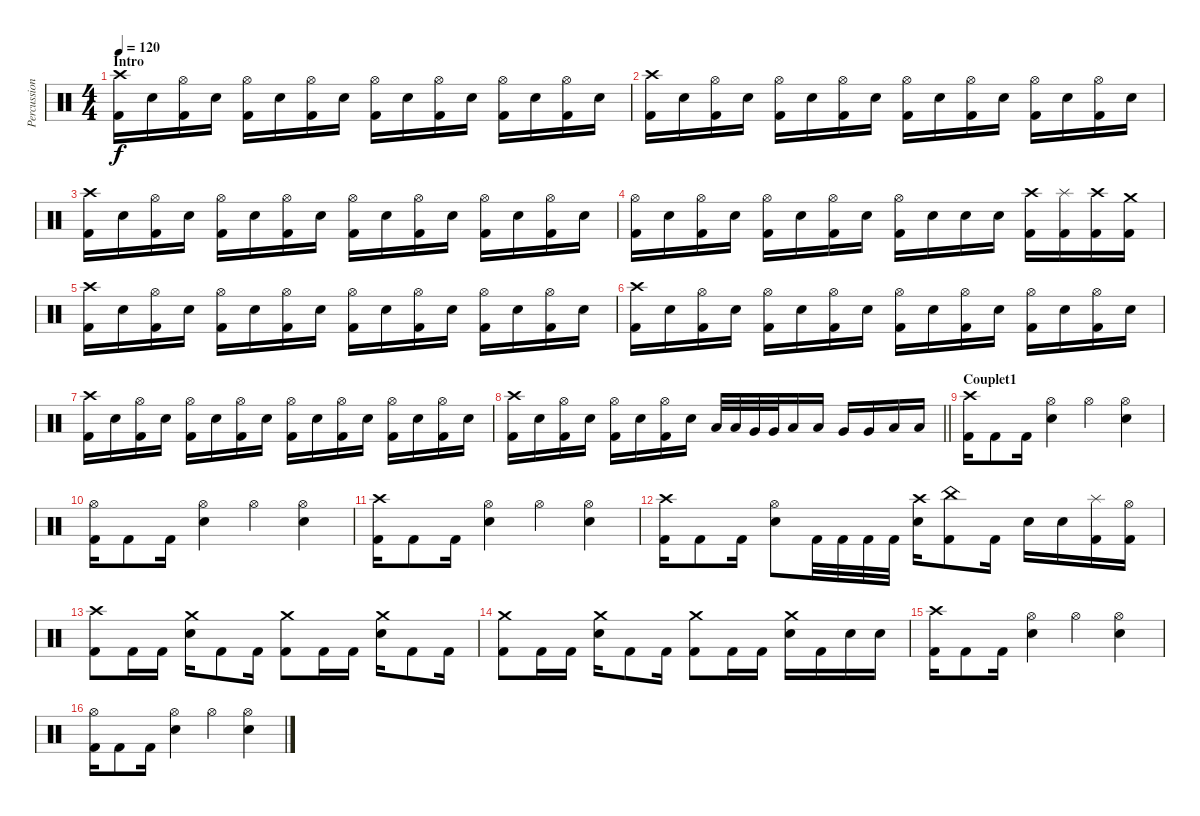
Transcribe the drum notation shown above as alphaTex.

\track ("Percussion" "Percussion") {instrument percussion}
\staff {score}
\articulation defaults
\ts (4 4)
\section ("" "Intro")
\tempo 120
\clef neutral
\ks c
("Crash high (hit)" "Kick (hit) 2").16{dy f} "Electric Snare (hit)".16 ("Hi-Hat (open)" "Kick (hit) 2").16 "Electric Snare (hit)".16 ("Hi-Hat (open)" "Kick (hit) 2").16 "Electric Snare (hit)".16 ("Hi-Hat (open)" "Kick (hit) 2").16 "Electric Snare (hit)".16 ("Hi-Hat (open)" "Kick (hit) 2").16 "Electric Snare (hit)".16 ("Hi-Hat (open)" "Kick (hit) 2").16 "Electric Snare (hit)".16 ("Hi-Hat (open)" "Kick (hit) 2").16 "Electric Snare (hit)".16 ("Hi-Hat (open)" "Kick (hit) 2").16 "Electric Snare (hit)".16 |
("Crash high (hit)" "Kick (hit) 2").16 "Electric Snare (hit)".16 ("Hi-Hat (open)" "Kick (hit) 2").16 "Electric Snare (hit)".16 ("Hi-Hat (open)" "Kick (hit) 2").16 "Electric Snare (hit)".16 ("Hi-Hat (open)" "Kick (hit) 2").16 "Electric Snare (hit)".16 ("Hi-Hat (open)" "Kick (hit) 2").16 "Electric Snare (hit)".16 ("Hi-Hat (open)" "Kick (hit) 2").16 "Electric Snare (hit)".16 ("Hi-Hat (open)" "Kick (hit) 2").16 "Electric Snare (hit)".16 ("Hi-Hat (open)" "Kick (hit) 2").16 "Electric Snare (hit)".16 |
("Crash high (hit)" "Kick (hit) 2").16 "Electric Snare (hit)".16 ("Hi-Hat (open)" "Kick (hit) 2").16 "Electric Snare (hit)".16 ("Hi-Hat (open)" "Kick (hit) 2").16 "Electric Snare (hit)".16 ("Hi-Hat (open)" "Kick (hit) 2").16 "Electric Snare (hit)".16 ("Hi-Hat (open)" "Kick (hit) 2").16 "Electric Snare (hit)".16 ("Hi-Hat (open)" "Kick (hit) 2").16 "Electric Snare (hit)".16 ("Hi-Hat (open)" "Kick (hit) 2").16 "Electric Snare (hit)".16 ("Hi-Hat (open)" "Kick (hit) 2").16 "Electric Snare (hit)".16 |
("Hi-Hat (open)" "Kick (hit) 2").16 "Electric Snare (hit)".16 ("Hi-Hat (open)" "Kick (hit) 2").16 "Electric Snare (hit)".16 ("Hi-Hat (open)" "Kick (hit) 2").16 "Electric Snare (hit)".16 ("Hi-Hat (open)" "Kick (hit) 2").16 "Electric Snare (hit)".16 ("Hi-Hat (open)" "Kick (hit) 2").16 "Electric Snare (hit)".16 "Electric Snare (hit)".16 "Electric Snare (hit)".16 ("Crash high (hit)" "Kick (hit) 2").16 ("Splash (hit)" "Kick (hit) 2").16 ("Crash high (hit)" "Kick (hit) 2").16 ("Crash medium (hit)" "Kick (hit) 2").16 |
("Crash high (hit)" "Kick (hit) 2").16 "Electric Snare (hit)".16 ("Hi-Hat (open)" "Kick (hit) 2").16 "Electric Snare (hit)".16 ("Hi-Hat (open)" "Kick (hit) 2").16 "Electric Snare (hit)".16 ("Hi-Hat (open)" "Kick (hit) 2").16 "Electric Snare (hit)".16 ("Hi-Hat (open)" "Kick (hit) 2").16 "Electric Snare (hit)".16 ("Hi-Hat (open)" "Kick (hit) 2").16 "Electric Snare (hit)".16 ("Hi-Hat (open)" "Kick (hit) 2").16 "Electric Snare (hit)".16 ("Hi-Hat (open)" "Kick (hit) 2").16 "Electric Snare (hit)".16 |
("Crash high (hit)" "Kick (hit) 2").16 "Electric Snare (hit)".16 ("Hi-Hat (open)" "Kick (hit) 2").16 "Electric Snare (hit)".16 ("Hi-Hat (open)" "Kick (hit) 2").16 "Electric Snare (hit)".16 ("Hi-Hat (open)" "Kick (hit) 2").16 "Electric Snare (hit)".16 ("Hi-Hat (open)" "Kick (hit) 2").16 "Electric Snare (hit)".16 ("Hi-Hat (open)" "Kick (hit) 2").16 "Electric Snare (hit)".16 ("Hi-Hat (open)" "Kick (hit) 2").16 "Electric Snare (hit)".16 ("Hi-Hat (open)" "Kick (hit) 2").16 "Electric Snare (hit)".16 |
("Crash high (hit)" "Kick (hit) 2").16 "Electric Snare (hit)".16 ("Hi-Hat (open)" "Kick (hit) 2").16 "Electric Snare (hit)".16 ("Hi-Hat (open)" "Kick (hit) 2").16 "Electric Snare (hit)".16 ("Hi-Hat (open)" "Kick (hit) 2").16 "Electric Snare (hit)".16 ("Hi-Hat (open)" "Kick (hit) 2").16 "Electric Snare (hit)".16 ("Hi-Hat (open)" "Kick (hit) 2").16 "Electric Snare (hit)".16 ("Hi-Hat (open)" "Kick (hit) 2").16 "Electric Snare (hit)".16 ("Hi-Hat (open)" "Kick (hit) 2").16 "Electric Snare (hit)".16 |
\barLineRight lightlight
("Crash high (hit)" "Kick (hit) 2").16 "Electric Snare (hit)".16 ("Hi-Hat (open)" "Kick (hit) 2").16 "Electric Snare (hit)".16 ("Hi-Hat (open)" "Kick (hit) 2").16 "Electric Snare (hit)".16 ("Hi-Hat (open)" "Kick (hit) 2").16 "Electric Snare (hit)".16 "Low Tom (hit)".32 "Low Tom (hit)".32 "Very Low Tom (hit)".32 "Very Low Tom (hit)".32 "Low Tom (hit)".16 "Low Tom (hit)".16 "Very Low Tom (hit)".16 "Very Low Tom (hit)".16 "Low Floor Tom (hit)".16 "Low Floor Tom (hit)".16 |
\section ("" "Couplet1")
("Crash high (hit)" "Kick (hit) 2").16 "Kick (hit) 2".8 "Kick (hit) 2".16 ("Hi-Hat (open)" "Electric Snare (hit)").4 "Hi-Hat (open)".4 ("Hi-Hat (open)" "Electric Snare (hit)").4 |
("Hi-Hat (open)" "Kick (hit) 2").16 "Kick (hit) 2".8 "Kick (hit) 2".16 ("Hi-Hat (open)" "Electric Snare (hit)").4 "Hi-Hat (open)".4 ("Hi-Hat (open)" "Electric Snare (hit)").4 |
("Crash high (hit)" "Kick (hit) 2").16 "Kick (hit) 2".8 "Kick (hit) 2".16 ("Hi-Hat (open)" "Electric Snare (hit)").4 "Hi-Hat (open)".4 ("Hi-Hat (open)" "Electric Snare (hit)").4 |
("Crash high (hit)" "Kick (hit) 2").16 "Kick (hit) 2".8 "Kick (hit) 2".16 ("Hi-Hat (open)" "Electric Snare (hit)").8 "Kick (hit) 2".32 "Kick (hit) 2".32 "Kick (hit) 2".32 "Kick (hit) 2".32 ("Crash high (hit)" "Electric Snare (hit)").16 ("China (hit)" "Kick (hit) 2").8 "Kick (hit) 2".16 "Electric Snare (hit)".16 "Electric Snare (hit)".16 ("Splash (hit)" "Kick (hit) 2").16 ("Hi-Hat (open)" "Kick (hit) 2").16 |
("Crash high (hit)" "Kick (hit) 2").8 "Kick (hit) 2".16 "Kick (hit) 2".16 ("Crash medium (hit)" "Electric Snare (hit)").16 "Kick (hit) 2".8 "Kick (hit) 2".16 ("Crash medium (hit)" "Kick (hit) 2").8 "Kick (hit) 2".16 "Kick (hit) 2".16 ("Crash medium (hit)" "Electric Snare (hit)").16 "Kick (hit) 2".8 "Kick (hit) 2".16 |
("Crash medium (hit)" "Kick (hit) 2").8 "Kick (hit) 2".16 "Kick (hit) 2".16 ("Crash medium (hit)" "Electric Snare (hit)").16 "Kick (hit) 2".8 "Kick (hit) 2".16 ("Crash medium (hit)" "Kick (hit) 2").8 "Kick (hit) 2".16 "Kick (hit) 2".16 ("Crash medium (hit)" "Electric Snare (hit)").16 "Kick (hit) 2".16 "Electric Snare (hit)".16 "Electric Snare (hit)".16 |
("Crash high (hit)" "Kick (hit) 2").16 "Kick (hit) 2".8 "Kick (hit) 2".16 ("Hi-Hat (open)" "Electric Snare (hit)").4 "Hi-Hat (open)".4 ("Hi-Hat (open)" "Electric Snare (hit)").4 |
("Hi-Hat (open)" "Kick (hit) 2").16 "Kick (hit) 2".8 "Kick (hit) 2".16 ("Hi-Hat (open)" "Electric Snare (hit)").4 "Hi-Hat (open)".4 ("Hi-Hat (open)" "Electric Snare (hit)").4
